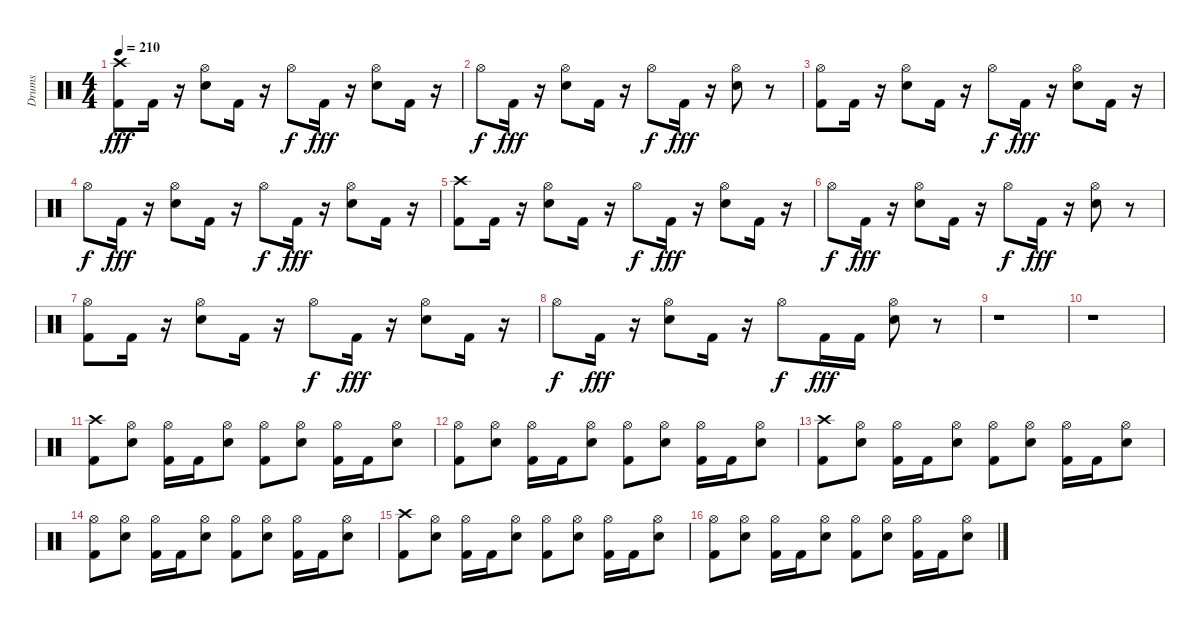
\track ("Drums" "Drums") {instrument percussion}
\staff {score}
\articulation defaults
\ts (4 4)
\tempo 210
\clef neutral
\ks c
("Kick (hit) 2" "Crash high (hit)").8{dy fff} "Kick (hit) 2".16 r.16 ("Electric Snare (hit)" "Hi-Hat (open)").8 "Kick (hit) 2".16 r.16 "Hi-Hat (open)".8{dy f} "Kick (hit) 2".16{dy fff} r.16 ("Electric Snare (hit)" "Hi-Hat (open)").8 "Kick (hit) 2".16 r.16 |
"Hi-Hat (open)".8{dy f} "Kick (hit) 2".16{dy fff} r.16 ("Electric Snare (hit)" "Hi-Hat (open)").8 "Kick (hit) 2".16 r.16 "Hi-Hat (open)".8{dy f} "Kick (hit) 2".16{dy fff} r.16 ("Electric Snare (hit)" "Hi-Hat (open)").8 r.8 |
("Kick (hit) 2" "Hi-Hat (open)").8 "Kick (hit) 2".16 r.16 ("Electric Snare (hit)" "Hi-Hat (open)").8 "Kick (hit) 2".16 r.16 "Hi-Hat (open)".8{dy f} "Kick (hit) 2".16{dy fff} r.16 ("Electric Snare (hit)" "Hi-Hat (open)").8 "Kick (hit) 2".16 r.16 |
"Hi-Hat (open)".8{dy f} "Kick (hit) 2".16{dy fff} r.16 ("Electric Snare (hit)" "Hi-Hat (open)").8 "Kick (hit) 2".16 r.16 "Hi-Hat (open)".8{dy f} "Kick (hit) 2".16{dy fff} r.16 ("Electric Snare (hit)" "Hi-Hat (open)").8 "Kick (hit) 2".16 r.16 |
("Kick (hit) 2" "Crash high (hit)").8 "Kick (hit) 2".16 r.16 ("Electric Snare (hit)" "Hi-Hat (open)").8 "Kick (hit) 2".16 r.16 "Hi-Hat (open)".8{dy f} "Kick (hit) 2".16{dy fff} r.16 ("Electric Snare (hit)" "Hi-Hat (open)").8 "Kick (hit) 2".16 r.16 |
"Hi-Hat (open)".8{dy f} "Kick (hit) 2".16{dy fff} r.16 ("Electric Snare (hit)" "Hi-Hat (open)").8 "Kick (hit) 2".16 r.16 "Hi-Hat (open)".8{dy f} "Kick (hit) 2".16{dy fff} r.16 ("Electric Snare (hit)" "Hi-Hat (open)").8 r.8 |
("Kick (hit) 2" "Hi-Hat (open)").8 "Kick (hit) 2".16 r.16 ("Electric Snare (hit)" "Hi-Hat (open)").8 "Kick (hit) 2".16 r.16 "Hi-Hat (open)".8{dy f} "Kick (hit) 2".16{dy fff} r.16 ("Electric Snare (hit)" "Hi-Hat (open)").8 "Kick (hit) 2".16 r.16 |
"Hi-Hat (open)".8{dy f} "Kick (hit) 2".16{dy fff} r.16 ("Electric Snare (hit)" "Hi-Hat (open)").8 "Kick (hit) 2".16 r.16 "Hi-Hat (open)".8{dy f} "Kick (hit) 2".16{dy fff} "Kick (hit) 2".16 ("Electric Snare (hit)" "Hi-Hat (open)").8 r.8 |
r.1 |
r.1 |
("Kick (hit) 2" "Crash high (hit)").8 ("Electric Snare (hit)" "Hi-Hat (open)").8 ("Kick (hit) 2" "Hi-Hat (open)").16 "Kick (hit) 2".16 ("Electric Snare (hit)" "Hi-Hat (open)").8 ("Kick (hit) 2" "Hi-Hat (open)").8 ("Electric Snare (hit)" "Hi-Hat (open)").8 ("Kick (hit) 2" "Hi-Hat (open)").16 "Kick (hit) 2".16 ("Electric Snare (hit)" "Hi-Hat (open)").8 |
("Kick (hit) 2" "Hi-Hat (open)").8 ("Electric Snare (hit)" "Hi-Hat (open)").8 ("Kick (hit) 2" "Hi-Hat (open)").16 "Kick (hit) 2".16 ("Electric Snare (hit)" "Hi-Hat (open)").8 ("Kick (hit) 2" "Hi-Hat (open)").8 ("Electric Snare (hit)" "Hi-Hat (open)").8 ("Kick (hit) 2" "Hi-Hat (open)").16 "Kick (hit) 2".16 ("Electric Snare (hit)" "Hi-Hat (open)").8 |
("Kick (hit) 2" "Crash high (hit)").8 ("Electric Snare (hit)" "Hi-Hat (open)").8 ("Kick (hit) 2" "Hi-Hat (open)").16 "Kick (hit) 2".16 ("Electric Snare (hit)" "Hi-Hat (open)").8 ("Kick (hit) 2" "Hi-Hat (open)").8 ("Electric Snare (hit)" "Hi-Hat (open)").8 ("Kick (hit) 2" "Hi-Hat (open)").16 "Kick (hit) 2".16 ("Electric Snare (hit)" "Hi-Hat (open)").8 |
("Kick (hit) 2" "Hi-Hat (open)").8 ("Electric Snare (hit)" "Hi-Hat (open)").8 ("Kick (hit) 2" "Hi-Hat (open)").16 "Kick (hit) 2".16 ("Electric Snare (hit)" "Hi-Hat (open)").8 ("Kick (hit) 2" "Hi-Hat (open)").8 ("Electric Snare (hit)" "Hi-Hat (open)").8 ("Kick (hit) 2" "Hi-Hat (open)").16 "Kick (hit) 2".16 ("Electric Snare (hit)" "Hi-Hat (open)").8 |
("Kick (hit) 2" "Crash high (hit)").8 ("Electric Snare (hit)" "Hi-Hat (open)").8 ("Kick (hit) 2" "Hi-Hat (open)").16 "Kick (hit) 2".16 ("Electric Snare (hit)" "Hi-Hat (open)").8 ("Kick (hit) 2" "Hi-Hat (open)").8 ("Electric Snare (hit)" "Hi-Hat (open)").8 ("Kick (hit) 2" "Hi-Hat (open)").16 "Kick (hit) 2".16 ("Electric Snare (hit)" "Hi-Hat (open)").8 |
("Kick (hit) 2" "Hi-Hat (open)").8 ("Electric Snare (hit)" "Hi-Hat (open)").8 ("Kick (hit) 2" "Hi-Hat (open)").16 "Kick (hit) 2".16 ("Electric Snare (hit)" "Hi-Hat (open)").8 ("Kick (hit) 2" "Hi-Hat (open)").8 ("Electric Snare (hit)" "Hi-Hat (open)").8 ("Kick (hit) 2" "Hi-Hat (open)").16 "Kick (hit) 2".16 ("Electric Snare (hit)" "Hi-Hat (open)").8
